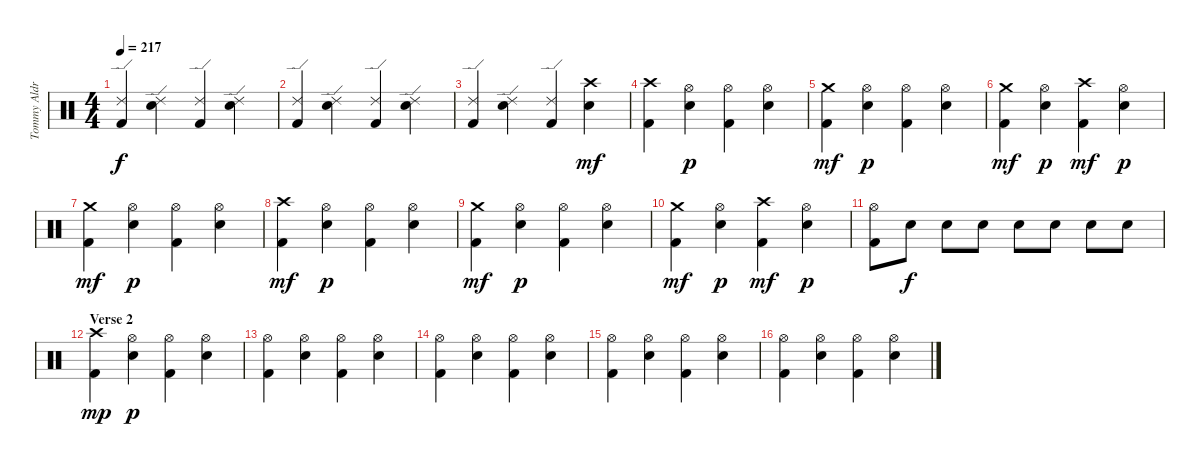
\track ("Tommy Aldridge" "Tommy Aldr") {instrument percussion}
\staff {score}
\articulation defaults
\ts (4 4)
\tempo 217
\clef neutral
\ks c
("Kick (hit) 2" "Ride (edge) 2").4{dy f} ("Ride (edge) 2" "Snare (hit) 2").4 ("Kick (hit) 2" "Ride (edge) 2").4 ("Ride (edge) 2" "Snare (hit) 2").4 |
("Kick (hit) 2" "Ride (edge) 2").4 ("Ride (edge) 2" "Snare (hit) 2").4 ("Kick (hit) 2" "Ride (edge) 2").4 ("Ride (edge) 2" "Snare (hit) 2").4 |
("Kick (hit) 2" "Ride (edge) 2").4 ("Ride (edge) 2" "Snare (hit) 2").4 ("Kick (hit) 2" "Ride (edge) 2").4 ("Crash high (hit)" "Snare (hit) 2").4{dy mf} |
("Kick (hit) 2" "Crash high (hit)").4 ("Hi-Hat (open)" "Snare (hit) 2").4{dy p} ("Kick (hit) 2" "Hi-Hat (open)").4 ("Hi-Hat (open)" "Snare (hit) 2").4 |
("Kick (hit) 2" "Crash medium (hit)").4{dy mf} ("Hi-Hat (open)" "Snare (hit) 2").4{dy p} ("Kick (hit) 2" "Hi-Hat (open)").4 ("Hi-Hat (open)" "Snare (hit) 2").4 |
("Kick (hit) 2" "Crash medium (hit)").4{dy mf} ("Hi-Hat (open)" "Snare (hit) 2").4{dy p} ("Kick (hit) 2" "Crash high (hit)").4{dy mf} ("Hi-Hat (open)" "Snare (hit) 2").4{dy p} |
("Kick (hit) 2" "Crash medium (hit)").4{dy mf} ("Hi-Hat (open)" "Snare (hit) 2").4{dy p} ("Kick (hit) 2" "Hi-Hat (open)").4 ("Hi-Hat (open)" "Snare (hit) 2").4 |
("Kick (hit) 2" "Crash high (hit)").4{dy mf} ("Hi-Hat (open)" "Snare (hit) 2").4{dy p} ("Kick (hit) 2" "Hi-Hat (open)").4 ("Hi-Hat (open)" "Snare (hit) 2").4 |
("Kick (hit) 2" "Crash medium (hit)").4{dy mf} ("Hi-Hat (open)" "Snare (hit) 2").4{dy p} ("Kick (hit) 2" "Hi-Hat (open)").4 ("Hi-Hat (open)" "Snare (hit) 2").4 |
("Kick (hit) 2" "Crash medium (hit)").4{dy mf} ("Hi-Hat (open)" "Snare (hit) 2").4{dy p} ("Kick (hit) 2" "Crash high (hit)").4{dy mf} ("Hi-Hat (open)" "Snare (hit) 2").4{dy p} |
("Kick (hit) 2" "Hi-Hat (open)").8 "Snare (hit) 2".8{dy f} "Snare (hit) 2".8 "Snare (hit) 2".8 "Snare (hit) 2".8 "Snare (hit) 2".8 "Snare (hit) 2".8 "Snare (hit) 2".8 |
\section ("" "Verse 2")
("Kick (hit) 2" "Crash high (hit)").4{dy mp} ("Hi-Hat (open)" "Snare (hit) 2").4{dy p} ("Kick (hit) 2" "Hi-Hat (open)").4 ("Hi-Hat (open)" "Snare (hit) 2").4 |
("Kick (hit) 2" "Hi-Hat (open)").4 ("Hi-Hat (open)" "Snare (hit) 2").4 ("Kick (hit) 2" "Hi-Hat (open)").4 ("Hi-Hat (open)" "Snare (hit) 2").4 |
("Kick (hit) 2" "Hi-Hat (open)").4 ("Hi-Hat (open)" "Snare (hit) 2").4 ("Kick (hit) 2" "Hi-Hat (open)").4 ("Hi-Hat (open)" "Snare (hit) 2").4 |
("Kick (hit) 2" "Hi-Hat (open)").4 ("Hi-Hat (open)" "Snare (hit) 2").4 ("Kick (hit) 2" "Hi-Hat (open)").4 ("Hi-Hat (open)" "Snare (hit) 2").4 |
("Kick (hit) 2" "Hi-Hat (open)").4 ("Hi-Hat (open)" "Snare (hit) 2").4 ("Kick (hit) 2" "Hi-Hat (open)").4 ("Hi-Hat (open)" "Snare (hit) 2").4
